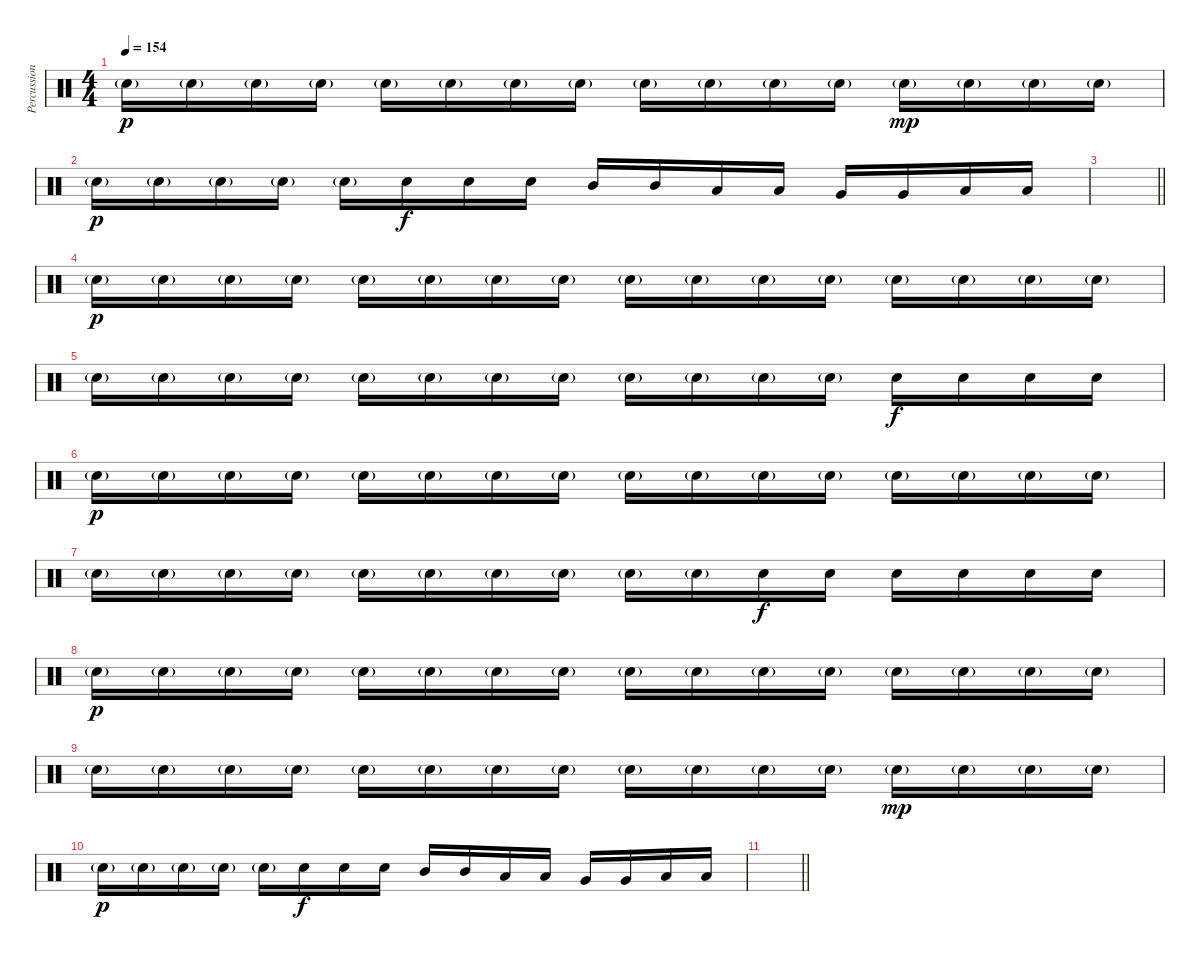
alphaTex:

\track ("Percussion" "Percussion") {instrument percussion}
\staff {score}
\articulation defaults
\ts (4 4)
\tempo 154
\clef neutral
\ks c "Snare (hit) 2"{g}.16{dy p} "Snare (hit) 2"{g}.16 "Snare (hit) 2"{g}.16 "Snare (hit) 2"{g}.16 "Snare (hit) 2"{g}.16 "Snare (hit) 2"{g}.16 "Snare (hit) 2"{g}.16 "Snare (hit) 2"{g}.16 "Snare (hit) 2"{g}.16 "Snare (hit) 2"{g}.16 "Snare (hit) 2"{g}.16 "Snare (hit) 2"{g}.16 "Snare (hit) 2"{g}.16{dy mp} "Snare (hit) 2"{g}.16 "Snare (hit) 2"{g}.16 "Snare (hit) 2"{g}.16
|
"Snare (hit) 2"{g}.16{dy p} "Snare (hit) 2"{g}.16 "Snare (hit) 2"{g}.16 "Snare (hit) 2"{g}.16 "Snare (hit) 2"{g}.16 "Snare (hit) 2".16{dy f} "Snare (hit) 2".16 "Snare (hit) 2".16 "Mid Tom (hit)".16 "Mid Tom (hit)".16 "Low Tom (hit)".16 "Low Tom (hit)".16 "Very Low Tom (hit)".16 "Very Low Tom (hit)".16 "Low Floor Tom (hit)".16 "Low Floor Tom (hit)".16 |
\barLineRight lightlight
|
"Snare (hit) 2"{g}.16{dy p} "Snare (hit) 2"{g}.16 "Snare (hit) 2"{g}.16 "Snare (hit) 2"{g}.16 "Snare (hit) 2"{g}.16 "Snare (hit) 2"{g}.16 "Snare (hit) 2"{g}.16 "Snare (hit) 2"{g}.16 "Snare (hit) 2"{g}.16 "Snare (hit) 2"{g}.16 "Snare (hit) 2"{g}.16 "Snare (hit) 2"{g}.16 "Snare (hit) 2"{g}.16 "Snare (hit) 2"{g}.16 "Snare (hit) 2"{g}.16 "Snare (hit) 2"{g}.16 |
"Snare (hit) 2"{g}.16 "Snare (hit) 2"{g}.16 "Snare (hit) 2"{g}.16 "Snare (hit) 2"{g}.16 "Snare (hit) 2"{g}.16 "Snare (hit) 2"{g}.16 "Snare (hit) 2"{g}.16 "Snare (hit) 2"{g}.16 "Snare (hit) 2"{g}.16 "Snare (hit) 2"{g}.16 "Snare (hit) 2"{g}.16 "Snare (hit) 2"{g}.16 "Snare (hit) 2".16{dy f} "Snare (hit) 2".16 "Snare (hit) 2".16 "Snare (hit) 2".16 |
"Snare (hit) 2"{g}.16{dy p} "Snare (hit) 2"{g}.16 "Snare (hit) 2"{g}.16 "Snare (hit) 2"{g}.16 "Snare (hit) 2"{g}.16 "Snare (hit) 2"{g}.16 "Snare (hit) 2"{g}.16 "Snare (hit) 2"{g}.16 "Snare (hit) 2"{g}.16 "Snare (hit) 2"{g}.16 "Snare (hit) 2"{g}.16 "Snare (hit) 2"{g}.16 "Snare (hit) 2"{g}.16 "Snare (hit) 2"{g}.16 "Snare (hit) 2"{g}.16 "Snare (hit) 2"{g}.16 |
"Snare (hit) 2"{g}.16 "Snare (hit) 2"{g}.16 "Snare (hit) 2"{g}.16 "Snare (hit) 2"{g}.16 "Snare (hit) 2"{g}.16 "Snare (hit) 2"{g}.16 "Snare (hit) 2"{g}.16 "Snare (hit) 2"{g}.16 "Snare (hit) 2"{g}.16 "Snare (hit) 2"{g}.16 "Snare (hit) 2".16{dy f} "Snare (hit) 2".16 "Snare (hit) 2".16 "Snare (hit) 2".16 "Snare (hit) 2".16 "Snare (hit) 2".16 |
"Snare (hit) 2"{g}.16{dy p} "Snare (hit) 2"{g}.16 "Snare (hit) 2"{g}.16 "Snare (hit) 2"{g}.16 "Snare (hit) 2"{g}.16 "Snare (hit) 2"{g}.16 "Snare (hit) 2"{g}.16 "Snare (hit) 2"{g}.16 "Snare (hit) 2"{g}.16 "Snare (hit) 2"{g}.16 "Snare (hit) 2"{g}.16 "Snare (hit) 2"{g}.16 "Snare (hit) 2"{g}.16 "Snare (hit) 2"{g}.16 "Snare (hit) 2"{g}.16 "Snare (hit) 2"{g}.16 |
"Snare (hit) 2"{g}.16 "Snare (hit) 2"{g}.16 "Snare (hit) 2"{g}.16 "Snare (hit) 2"{g}.16 "Snare (hit) 2"{g}.16 "Snare (hit) 2"{g}.16 "Snare (hit) 2"{g}.16 "Snare (hit) 2"{g}.16 "Snare (hit) 2"{g}.16 "Snare (hit) 2"{g}.16 "Snare (hit) 2"{g}.16 "Snare (hit) 2"{g}.16 "Snare (hit) 2"{g}.16{dy mp} "Snare (hit) 2"{g}.16 "Snare (hit) 2"{g}.16 "Snare (hit) 2"{g}.16 |
"Snare (hit) 2"{g}.16{dy p} "Snare (hit) 2"{g}.16 "Snare (hit) 2"{g}.16 "Snare (hit) 2"{g}.16 "Snare (hit) 2"{g}.16 "Snare (hit) 2".16{dy f} "Snare (hit) 2".16 "Snare (hit) 2".16 "Mid Tom (hit)".16 "Mid Tom (hit)".16 "Low Tom (hit)".16 "Low Tom (hit)".16 "Very Low Tom (hit)".16 "Very Low Tom (hit)".16 "Low Floor Tom (hit)".16 "Low Floor Tom (hit)".16 |
\barLineRight lightlight
